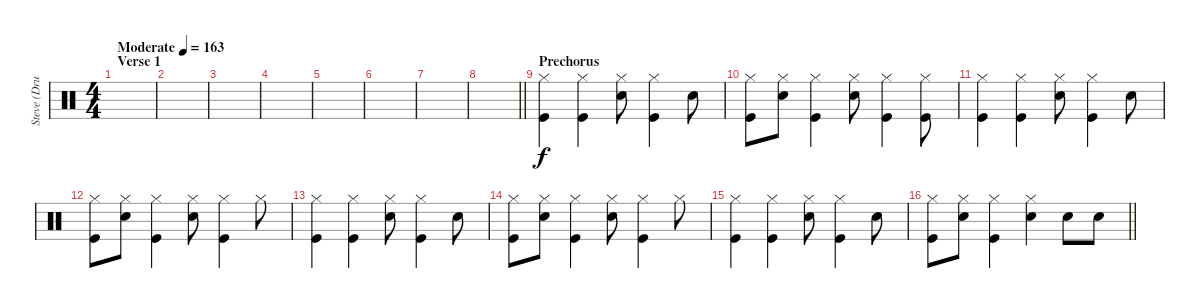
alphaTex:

\track ("Steve (Drums)" "Steve (Dru") {instrument percussion}
\staff {score}
\articulation defaults
\ts (4 4)
\section ("" "Verse 1")
\tempo (163 "Moderate")
\clef neutral
\ks c
|
|
|
|
|
|
|
\barLineRight lightlight
|
\section ("" "Prechorus")
("Hi-Hat (closed)" "Kick (hit)").4 ("Hi-Hat (closed)" "Kick (hit)").4 ("Hi-Hat (closed)" "Electric Snare (hit)").8 ("Hi-Hat (closed)" "Kick (hit)").4 "Electric Snare (hit)".8 |
("Hi-Hat (closed)" "Kick (hit)").8 ("Hi-Hat (closed)" "Electric Snare (hit)").8 ("Hi-Hat (closed)" "Kick (hit)").4 ("Hi-Hat (closed)" "Electric Snare (hit)").8 ("Hi-Hat (closed)" "Kick (hit)").4 ("Hi-Hat (closed)" "Kick (hit)").8 |
("Hi-Hat (closed)" "Kick (hit)").4 ("Hi-Hat (closed)" "Kick (hit)").4 ("Hi-Hat (closed)" "Electric Snare (hit)").8 ("Hi-Hat (closed)" "Kick (hit)").4 "Electric Snare (hit)".8 |
("Hi-Hat (closed)" "Kick (hit)").8 ("Hi-Hat (closed)" "Electric Snare (hit)").8 ("Hi-Hat (closed)" "Kick (hit)").4 ("Hi-Hat (closed)" "Electric Snare (hit)").8 ("Hi-Hat (closed)" "Kick (hit)").4 "Hi-Hat (closed)".8 |
("Hi-Hat (closed)" "Kick (hit)").4 ("Hi-Hat (closed)" "Kick (hit)").4 ("Hi-Hat (closed)" "Electric Snare (hit)").8 ("Hi-Hat (closed)" "Kick (hit)").4 "Electric Snare (hit)".8 |
("Hi-Hat (closed)" "Kick (hit)").8 ("Hi-Hat (closed)" "Electric Snare (hit)").8 ("Hi-Hat (closed)" "Kick (hit)").4 ("Hi-Hat (closed)" "Electric Snare (hit)").8 ("Hi-Hat (closed)" "Kick (hit)").4 "Hi-Hat (closed)".8 |
("Hi-Hat (closed)" "Kick (hit)").4 ("Hi-Hat (closed)" "Kick (hit)").4 ("Hi-Hat (closed)" "Electric Snare (hit)").8 ("Hi-Hat (closed)" "Kick (hit)").4 "Electric Snare (hit)".8 |
\barLineRight lightlight
("Hi-Hat (closed)" "Kick (hit)").8 ("Hi-Hat (closed)" "Electric Snare (hit)").8 ("Hi-Hat (closed)" "Kick (hit)").4 ("Hi-Hat (closed)" "Electric Snare (hit)").4 "Electric Snare (hit)".8 "Electric Snare (hit)".8
